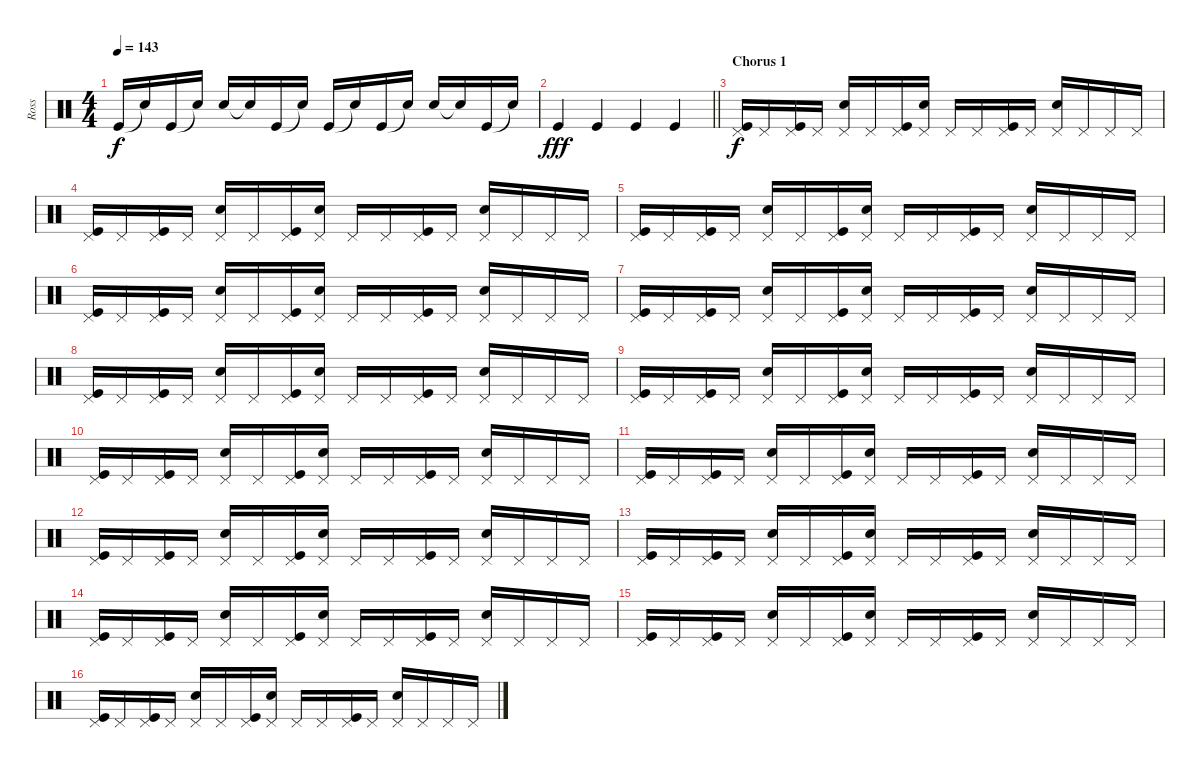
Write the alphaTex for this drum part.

\track ("Ross" "Ross") {instrument percussion}
\staff {score}
\articulation defaults
\ts (4 4)
\tempo 143
\clef neutral
\ks c "Kick (hit)".16{dy f} "Snare (hit)"{t}.16 "Kick (hit)".16 "Snare (hit)"{t}.16 "Snare (hit) 2".16 "Snare (hit)"{t}.16 "Kick (hit)".16 "Snare (hit)"{t}.16 "Kick (hit)".16 "Snare (hit)"{t}.16 "Kick (hit)".16 "Snare (hit)"{t}.16 "Snare (hit) 2".16 "Snare (hit)"{t}.16 "Kick (hit)".16 "Snare (hit)"{t}.16
|
\barLineRight lightlight "Kick (hit)".4{dy fff} "Kick (hit)".4 "Kick (hit)".4 "Kick (hit)".4
|
\section ("" "Chorus 1")
("Pedal Hi-Hat (hit)" "Kick (hit)").16{dy f} "Pedal Hi-Hat (hit)".16 ("Pedal Hi-Hat (hit)" "Kick (hit)").16 "Pedal Hi-Hat (hit)".16 ("Pedal Hi-Hat (hit)" "Snare (hit) 2").16 "Pedal Hi-Hat (hit)".16 ("Pedal Hi-Hat (hit)" "Kick (hit)").16 ("Pedal Hi-Hat (hit)" "Snare (hit) 2").16 "Pedal Hi-Hat (hit)".16 "Pedal Hi-Hat (hit)".16 ("Pedal Hi-Hat (hit)" "Kick (hit)").16 "Pedal Hi-Hat (hit)".16 ("Pedal Hi-Hat (hit)" "Snare (hit) 2").16 "Pedal Hi-Hat (hit)".16 "Pedal Hi-Hat (hit)".16 "Pedal Hi-Hat (hit)".16 |
("Pedal Hi-Hat (hit)" "Kick (hit)").16 "Pedal Hi-Hat (hit)".16 ("Pedal Hi-Hat (hit)" "Kick (hit)").16 "Pedal Hi-Hat (hit)".16 ("Pedal Hi-Hat (hit)" "Snare (hit) 2").16 "Pedal Hi-Hat (hit)".16 ("Pedal Hi-Hat (hit)" "Kick (hit)").16 ("Pedal Hi-Hat (hit)" "Snare (hit) 2").16 "Pedal Hi-Hat (hit)".16 "Pedal Hi-Hat (hit)".16 ("Pedal Hi-Hat (hit)" "Kick (hit)").16 "Pedal Hi-Hat (hit)".16 ("Pedal Hi-Hat (hit)" "Snare (hit) 2").16 "Pedal Hi-Hat (hit)".16 "Pedal Hi-Hat (hit)".16 "Pedal Hi-Hat (hit)".16 |
("Pedal Hi-Hat (hit)" "Kick (hit)").16 "Pedal Hi-Hat (hit)".16 ("Pedal Hi-Hat (hit)" "Kick (hit)").16 "Pedal Hi-Hat (hit)".16 ("Pedal Hi-Hat (hit)" "Snare (hit) 2").16 "Pedal Hi-Hat (hit)".16 ("Pedal Hi-Hat (hit)" "Kick (hit)").16 ("Pedal Hi-Hat (hit)" "Snare (hit) 2").16 "Pedal Hi-Hat (hit)".16 "Pedal Hi-Hat (hit)".16 ("Pedal Hi-Hat (hit)" "Kick (hit)").16 "Pedal Hi-Hat (hit)".16 ("Pedal Hi-Hat (hit)" "Snare (hit) 2").16 "Pedal Hi-Hat (hit)".16 "Pedal Hi-Hat (hit)".16 "Pedal Hi-Hat (hit)".16 |
("Pedal Hi-Hat (hit)" "Kick (hit)").16 "Pedal Hi-Hat (hit)".16 ("Pedal Hi-Hat (hit)" "Kick (hit)").16 "Pedal Hi-Hat (hit)".16 ("Pedal Hi-Hat (hit)" "Snare (hit) 2").16 "Pedal Hi-Hat (hit)".16 ("Pedal Hi-Hat (hit)" "Kick (hit)").16 ("Pedal Hi-Hat (hit)" "Snare (hit) 2").16 "Pedal Hi-Hat (hit)".16 "Pedal Hi-Hat (hit)".16 ("Pedal Hi-Hat (hit)" "Kick (hit)").16 "Pedal Hi-Hat (hit)".16 ("Pedal Hi-Hat (hit)" "Snare (hit) 2").16 "Pedal Hi-Hat (hit)".16 "Pedal Hi-Hat (hit)".16 "Pedal Hi-Hat (hit)".16 |
("Pedal Hi-Hat (hit)" "Kick (hit)").16 "Pedal Hi-Hat (hit)".16 ("Pedal Hi-Hat (hit)" "Kick (hit)").16 "Pedal Hi-Hat (hit)".16 ("Pedal Hi-Hat (hit)" "Snare (hit) 2").16 "Pedal Hi-Hat (hit)".16 ("Pedal Hi-Hat (hit)" "Kick (hit)").16 ("Pedal Hi-Hat (hit)" "Snare (hit) 2").16 "Pedal Hi-Hat (hit)".16 "Pedal Hi-Hat (hit)".16 ("Pedal Hi-Hat (hit)" "Kick (hit)").16 "Pedal Hi-Hat (hit)".16 ("Pedal Hi-Hat (hit)" "Snare (hit) 2").16 "Pedal Hi-Hat (hit)".16 "Pedal Hi-Hat (hit)".16 "Pedal Hi-Hat (hit)".16 |
("Pedal Hi-Hat (hit)" "Kick (hit)").16 "Pedal Hi-Hat (hit)".16 ("Pedal Hi-Hat (hit)" "Kick (hit)").16 "Pedal Hi-Hat (hit)".16 ("Pedal Hi-Hat (hit)" "Snare (hit) 2").16 "Pedal Hi-Hat (hit)".16 ("Pedal Hi-Hat (hit)" "Kick (hit)").16 ("Pedal Hi-Hat (hit)" "Snare (hit) 2").16 "Pedal Hi-Hat (hit)".16 "Pedal Hi-Hat (hit)".16 ("Pedal Hi-Hat (hit)" "Kick (hit)").16 "Pedal Hi-Hat (hit)".16 ("Pedal Hi-Hat (hit)" "Snare (hit) 2").16 "Pedal Hi-Hat (hit)".16 "Pedal Hi-Hat (hit)".16 "Pedal Hi-Hat (hit)".16 |
("Pedal Hi-Hat (hit)" "Kick (hit)").16 "Pedal Hi-Hat (hit)".16 ("Pedal Hi-Hat (hit)" "Kick (hit)").16 "Pedal Hi-Hat (hit)".16 ("Pedal Hi-Hat (hit)" "Snare (hit) 2").16 "Pedal Hi-Hat (hit)".16 ("Pedal Hi-Hat (hit)" "Kick (hit)").16 ("Pedal Hi-Hat (hit)" "Snare (hit) 2").16 "Pedal Hi-Hat (hit)".16 "Pedal Hi-Hat (hit)".16 ("Pedal Hi-Hat (hit)" "Kick (hit)").16 "Pedal Hi-Hat (hit)".16 ("Pedal Hi-Hat (hit)" "Snare (hit) 2").16 "Pedal Hi-Hat (hit)".16 "Pedal Hi-Hat (hit)".16 "Pedal Hi-Hat (hit)".16 |
("Pedal Hi-Hat (hit)" "Kick (hit)").16 "Pedal Hi-Hat (hit)".16 ("Pedal Hi-Hat (hit)" "Kick (hit)").16 "Pedal Hi-Hat (hit)".16 ("Pedal Hi-Hat (hit)" "Snare (hit) 2").16 "Pedal Hi-Hat (hit)".16 ("Pedal Hi-Hat (hit)" "Kick (hit)").16 ("Pedal Hi-Hat (hit)" "Snare (hit) 2").16 "Pedal Hi-Hat (hit)".16 "Pedal Hi-Hat (hit)".16 ("Pedal Hi-Hat (hit)" "Kick (hit)").16 "Pedal Hi-Hat (hit)".16 ("Pedal Hi-Hat (hit)" "Snare (hit) 2").16 "Pedal Hi-Hat (hit)".16 "Pedal Hi-Hat (hit)".16 "Pedal Hi-Hat (hit)".16 |
("Pedal Hi-Hat (hit)" "Kick (hit)").16 "Pedal Hi-Hat (hit)".16 ("Pedal Hi-Hat (hit)" "Kick (hit)").16 "Pedal Hi-Hat (hit)".16 ("Pedal Hi-Hat (hit)" "Snare (hit) 2").16 "Pedal Hi-Hat (hit)".16 ("Pedal Hi-Hat (hit)" "Kick (hit)").16 ("Pedal Hi-Hat (hit)" "Snare (hit) 2").16 "Pedal Hi-Hat (hit)".16 "Pedal Hi-Hat (hit)".16 ("Pedal Hi-Hat (hit)" "Kick (hit)").16 "Pedal Hi-Hat (hit)".16 ("Pedal Hi-Hat (hit)" "Snare (hit) 2").16 "Pedal Hi-Hat (hit)".16 "Pedal Hi-Hat (hit)".16 "Pedal Hi-Hat (hit)".16 |
("Pedal Hi-Hat (hit)" "Kick (hit)").16 "Pedal Hi-Hat (hit)".16 ("Pedal Hi-Hat (hit)" "Kick (hit)").16 "Pedal Hi-Hat (hit)".16 ("Pedal Hi-Hat (hit)" "Snare (hit) 2").16 "Pedal Hi-Hat (hit)".16 ("Pedal Hi-Hat (hit)" "Kick (hit)").16 ("Pedal Hi-Hat (hit)" "Snare (hit) 2").16 "Pedal Hi-Hat (hit)".16 "Pedal Hi-Hat (hit)".16 ("Pedal Hi-Hat (hit)" "Kick (hit)").16 "Pedal Hi-Hat (hit)".16 ("Pedal Hi-Hat (hit)" "Snare (hit) 2").16 "Pedal Hi-Hat (hit)".16 "Pedal Hi-Hat (hit)".16 "Pedal Hi-Hat (hit)".16 |
("Pedal Hi-Hat (hit)" "Kick (hit)").16 "Pedal Hi-Hat (hit)".16 ("Pedal Hi-Hat (hit)" "Kick (hit)").16 "Pedal Hi-Hat (hit)".16 ("Pedal Hi-Hat (hit)" "Snare (hit) 2").16 "Pedal Hi-Hat (hit)".16 ("Pedal Hi-Hat (hit)" "Kick (hit)").16 ("Pedal Hi-Hat (hit)" "Snare (hit) 2").16 "Pedal Hi-Hat (hit)".16 "Pedal Hi-Hat (hit)".16 ("Pedal Hi-Hat (hit)" "Kick (hit)").16 "Pedal Hi-Hat (hit)".16 ("Pedal Hi-Hat (hit)" "Snare (hit) 2").16 "Pedal Hi-Hat (hit)".16 "Pedal Hi-Hat (hit)".16 "Pedal Hi-Hat (hit)".16 |
("Pedal Hi-Hat (hit)" "Kick (hit)").16 "Pedal Hi-Hat (hit)".16 ("Pedal Hi-Hat (hit)" "Kick (hit)").16 "Pedal Hi-Hat (hit)".16 ("Pedal Hi-Hat (hit)" "Snare (hit) 2").16 "Pedal Hi-Hat (hit)".16 ("Pedal Hi-Hat (hit)" "Kick (hit)").16 ("Pedal Hi-Hat (hit)" "Snare (hit) 2").16 "Pedal Hi-Hat (hit)".16 "Pedal Hi-Hat (hit)".16 ("Pedal Hi-Hat (hit)" "Kick (hit)").16 "Pedal Hi-Hat (hit)".16 ("Pedal Hi-Hat (hit)" "Snare (hit) 2").16 "Pedal Hi-Hat (hit)".16 "Pedal Hi-Hat (hit)".16 "Pedal Hi-Hat (hit)".16 |
("Pedal Hi-Hat (hit)" "Kick (hit)").16 "Pedal Hi-Hat (hit)".16 ("Pedal Hi-Hat (hit)" "Kick (hit)").16 "Pedal Hi-Hat (hit)".16 ("Pedal Hi-Hat (hit)" "Snare (hit) 2").16 "Pedal Hi-Hat (hit)".16 ("Pedal Hi-Hat (hit)" "Kick (hit)").16 ("Pedal Hi-Hat (hit)" "Snare (hit) 2").16 "Pedal Hi-Hat (hit)".16 "Pedal Hi-Hat (hit)".16 ("Pedal Hi-Hat (hit)" "Kick (hit)").16 "Pedal Hi-Hat (hit)".16 ("Pedal Hi-Hat (hit)" "Snare (hit) 2").16 "Pedal Hi-Hat (hit)".16 "Pedal Hi-Hat (hit)".16 "Pedal Hi-Hat (hit)".16 |
("Pedal Hi-Hat (hit)" "Kick (hit)").16 "Pedal Hi-Hat (hit)".16 ("Pedal Hi-Hat (hit)" "Kick (hit)").16 "Pedal Hi-Hat (hit)".16 ("Pedal Hi-Hat (hit)" "Snare (hit) 2").16 "Pedal Hi-Hat (hit)".16 ("Pedal Hi-Hat (hit)" "Kick (hit)").16 ("Pedal Hi-Hat (hit)" "Snare (hit) 2").16 "Pedal Hi-Hat (hit)".16 "Pedal Hi-Hat (hit)".16 ("Pedal Hi-Hat (hit)" "Kick (hit)").16 "Pedal Hi-Hat (hit)".16 ("Pedal Hi-Hat (hit)" "Snare (hit) 2").16 "Pedal Hi-Hat (hit)".16 "Pedal Hi-Hat (hit)".16 "Pedal Hi-Hat (hit)".16
